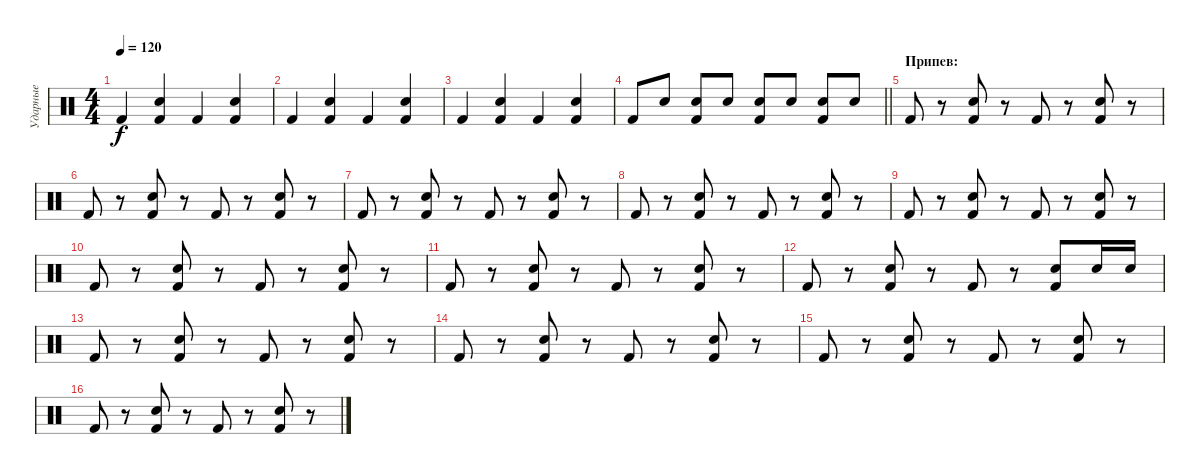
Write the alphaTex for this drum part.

\track ("Ударные" "Ударные") {instrument percussion}
\staff {score}
\articulation defaults
\ts (4 4)
\tempo 120
\clef neutral
\ks c "Kick (hit) 2".4{dy f}
("Kick (hit) 2" "Snare (hit) 2").4 "Kick (hit) 2".4 ("Kick (hit) 2" "Snare (hit) 2").4 |
"Kick (hit) 2".4 ("Kick (hit) 2" "Snare (hit) 2").4 "Kick (hit) 2".4 ("Kick (hit) 2" "Snare (hit) 2").4 |
"Kick (hit) 2".4 ("Kick (hit) 2" "Snare (hit) 2").4 "Kick (hit) 2".4 ("Kick (hit) 2" "Snare (hit) 2").4 |
\barLineRight lightlight "Kick (hit) 2".8 "Snare (hit) 2".8
("Snare (hit) 2" "Kick (hit) 2").8 "Snare (hit) 2".8 ("Snare (hit) 2" "Kick (hit) 2").8 "Snare (hit) 2".8 ("Snare (hit) 2" "Kick (hit) 2").8 "Snare (hit) 2".8 |
\section ("" "Припев:")
"Kick (hit) 2".8 r.8 ("Snare (hit) 2" "Kick (hit) 2").8 r.8 "Kick (hit) 2".8 r.8 ("Snare (hit) 2" "Kick (hit) 2").8 r.8 |
"Kick (hit) 2".8 r.8 ("Snare (hit) 2" "Kick (hit) 2").8 r.8 "Kick (hit) 2".8 r.8 ("Snare (hit) 2" "Kick (hit) 2").8 r.8 |
"Kick (hit) 2".8 r.8 ("Snare (hit) 2" "Kick (hit) 2").8 r.8 "Kick (hit) 2".8 r.8 ("Snare (hit) 2" "Kick (hit) 2").8 r.8 |
"Kick (hit) 2".8 r.8 ("Snare (hit) 2" "Kick (hit) 2").8 r.8 "Kick (hit) 2".8 r.8 ("Snare (hit) 2" "Kick (hit) 2").8 r.8 |
"Kick (hit) 2".8 r.8 ("Snare (hit) 2" "Kick (hit) 2").8 r.8 "Kick (hit) 2".8 r.8 ("Snare (hit) 2" "Kick (hit) 2").8 r.8 |
"Kick (hit) 2".8 r.8 ("Snare (hit) 2" "Kick (hit) 2").8 r.8 "Kick (hit) 2".8 r.8 ("Snare (hit) 2" "Kick (hit) 2").8 r.8 |
"Kick (hit) 2".8 r.8 ("Snare (hit) 2" "Kick (hit) 2").8 r.8 "Kick (hit) 2".8 r.8 ("Snare (hit) 2" "Kick (hit) 2").8 r.8 |
"Kick (hit) 2".8 r.8 ("Snare (hit) 2" "Kick (hit) 2").8 r.8 "Kick (hit) 2".8 r.8 ("Snare (hit) 2" "Kick (hit) 2").8 "Snare (hit) 2".16 "Snare (hit) 2".16 |
"Kick (hit) 2".8 r.8 ("Snare (hit) 2" "Kick (hit) 2").8 r.8 "Kick (hit) 2".8 r.8 ("Snare (hit) 2" "Kick (hit) 2").8 r.8 |
"Kick (hit) 2".8 r.8 ("Snare (hit) 2" "Kick (hit) 2").8 r.8 "Kick (hit) 2".8 r.8 ("Snare (hit) 2" "Kick (hit) 2").8 r.8 |
"Kick (hit) 2".8 r.8 ("Snare (hit) 2" "Kick (hit) 2").8 r.8 "Kick (hit) 2".8 r.8 ("Snare (hit) 2" "Kick (hit) 2").8 r.8 |
"Kick (hit) 2".8 r.8 ("Snare (hit) 2" "Kick (hit) 2").8 r.8 "Kick (hit) 2".8 r.8 ("Snare (hit) 2" "Kick (hit) 2").8 r.8
